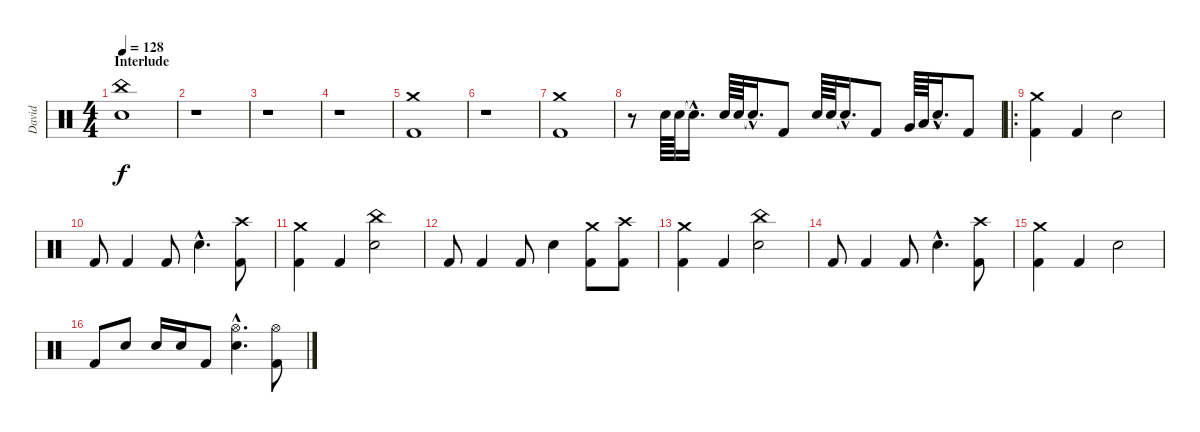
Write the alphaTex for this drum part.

\track ("David" "David") {instrument percussion}
\staff {score}
\articulation defaults
\ts (4 4)
\section ("" "Interlude")
\tempo 128
\clef neutral
\ks c
("China (hit)" "Snare (hit) 2").1{dy f} |
r.1 |
r.1 |
r.1 |
("Crash medium (hit)" "Kick (hit) 2").1 |
r.1 |
("Crash medium (hit)" "Kick (hit) 2").1 |
r.8 "Snare (hit) 2".64 "Snare (hit) 2".64 "Snare (hit)"{hac t}.16{d} "Snare (hit) 2".64 "Snare (hit) 2".64 "Snare (hit)"{hac t}.16{d} "Kick (hit) 2".8 "Snare (hit) 2".64 "Snare (hit) 2".64 "Snare (hit)"{hac t}.16{d} "Kick (hit) 2".8 "Very Low Tom (hit)".64 "Low Floor Tom (hit)".64 "Snare (hit)"{hac t}.16{d} "Kick (hit) 2".8 |
\ro
("Crash medium (hit)" "Kick (hit) 2").4 "Kick (hit) 2".4 "Snare (hit) 2".2 |
"Kick (hit) 2".8 "Kick (hit) 2".4 "Kick (hit) 2".8 "Snare (hit) 2"{hac}.4{d} ("Crash high (hit)" "Kick (hit) 2").8 |
("Crash medium (hit)" "Kick (hit) 2").4 "Kick (hit) 2".4 ("China (hit)" "Snare (hit) 2").2 |
"Kick (hit) 2".8 "Kick (hit) 2".4 "Kick (hit) 2".8 "Snare (hit) 2".4 ("Crash medium (hit)" "Kick (hit) 2").8 ("Crash high (hit)" "Kick (hit) 2").8 |
("Crash medium (hit)" "Kick (hit) 2").4 "Kick (hit) 2".4 ("China (hit)" "Snare (hit) 2").2 |
"Kick (hit) 2".8 "Kick (hit) 2".4 "Kick (hit) 2".8 "Snare (hit) 2"{hac}.4{d} ("Crash high (hit)" "Kick (hit) 2").8 |
("Crash medium (hit)" "Kick (hit) 2").4 "Kick (hit) 2".4 "Snare (hit) 2".2 |
"Kick (hit) 2".8 "Snare (hit) 2".8 "Snare (hit) 2".16 "Snare (hit) 2".16 "Kick (hit) 2".8 ("Hi-Hat (open)"{hac} "Snare (hit) 2"{hac}).4{d} ("Hi-Hat (open)" "Kick (hit) 2").8
